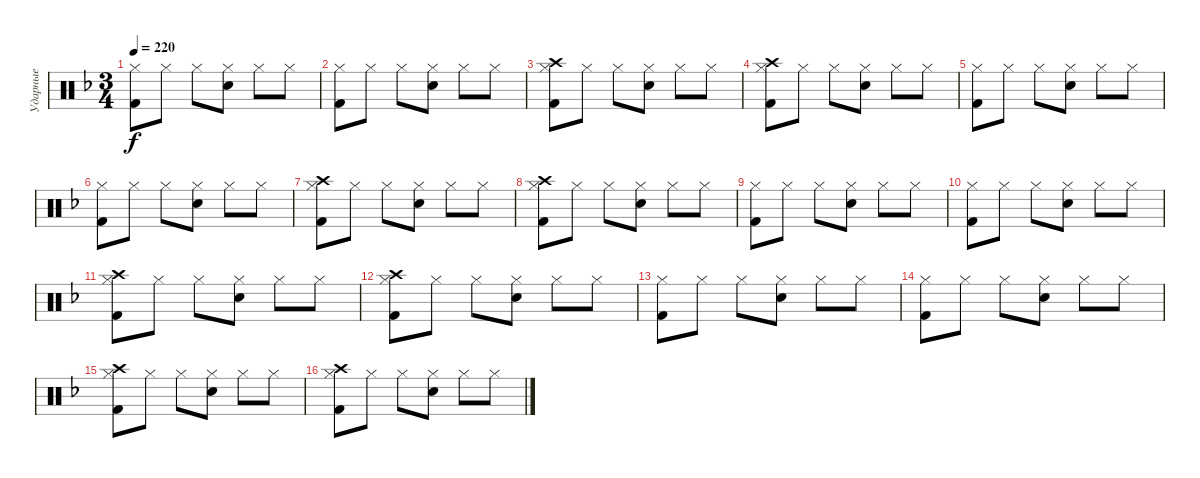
\track ("Ударные" "Ударные") {instrument percussion}
\staff {score}
\articulation defaults
\ts (3 4)
\tempo 220
\clef neutral
\ks f
("Hi-Hat (closed)" "Kick (hit) 2").8{dy f} "Hi-Hat (closed)".8 "Hi-Hat (closed)".8 ("Hi-Hat (closed)" "Electric Snare (hit)").8 "Hi-Hat (closed)".8 "Hi-Hat (closed)".8 |
("Hi-Hat (closed)" "Kick (hit) 2").8 "Hi-Hat (closed)".8 "Hi-Hat (closed)".8 ("Hi-Hat (closed)" "Electric Snare (hit)").8 "Hi-Hat (closed)".8 "Hi-Hat (closed)".8 |
("Crash high (hit)" "Hi-Hat (closed)" "Kick (hit) 2").8 "Hi-Hat (closed)".8 "Hi-Hat (closed)".8 ("Hi-Hat (closed)" "Electric Snare (hit)").8 "Hi-Hat (closed)".8 "Hi-Hat (closed)".8 |
("Crash high (hit)" "Hi-Hat (closed)" "Kick (hit) 2").8 "Hi-Hat (closed)".8 "Hi-Hat (closed)".8 ("Hi-Hat (closed)" "Electric Snare (hit)").8 "Hi-Hat (closed)".8 "Hi-Hat (closed)".8 |
("Hi-Hat (closed)" "Kick (hit) 2").8 "Hi-Hat (closed)".8 "Hi-Hat (closed)".8 ("Hi-Hat (closed)" "Electric Snare (hit)").8 "Hi-Hat (closed)".8 "Hi-Hat (closed)".8 |
("Hi-Hat (closed)" "Kick (hit) 2").8 "Hi-Hat (closed)".8 "Hi-Hat (closed)".8 ("Hi-Hat (closed)" "Electric Snare (hit)").8 "Hi-Hat (closed)".8 "Hi-Hat (closed)".8 |
("Crash high (hit)" "Hi-Hat (closed)" "Kick (hit) 2").8 "Hi-Hat (closed)".8 "Hi-Hat (closed)".8 ("Hi-Hat (closed)" "Electric Snare (hit)").8 "Hi-Hat (closed)".8 "Hi-Hat (closed)".8 |
("Crash high (hit)" "Hi-Hat (closed)" "Kick (hit) 2").8 "Hi-Hat (closed)".8 "Hi-Hat (closed)".8 ("Hi-Hat (closed)" "Electric Snare (hit)").8 "Hi-Hat (closed)".8 "Hi-Hat (closed)".8 |
("Hi-Hat (closed)" "Kick (hit) 2").8 "Hi-Hat (closed)".8 "Hi-Hat (closed)".8 ("Hi-Hat (closed)" "Electric Snare (hit)").8 "Hi-Hat (closed)".8 "Hi-Hat (closed)".8 |
("Hi-Hat (closed)" "Kick (hit) 2").8 "Hi-Hat (closed)".8 "Hi-Hat (closed)".8 ("Hi-Hat (closed)" "Electric Snare (hit)").8 "Hi-Hat (closed)".8 "Hi-Hat (closed)".8 |
("Crash high (hit)" "Hi-Hat (closed)" "Kick (hit) 2").8 "Hi-Hat (closed)".8 "Hi-Hat (closed)".8 ("Hi-Hat (closed)" "Electric Snare (hit)").8 "Hi-Hat (closed)".8 "Hi-Hat (closed)".8 |
("Crash high (hit)" "Hi-Hat (closed)" "Kick (hit) 2").8 "Hi-Hat (closed)".8 "Hi-Hat (closed)".8 ("Hi-Hat (closed)" "Electric Snare (hit)").8 "Hi-Hat (closed)".8 "Hi-Hat (closed)".8 |
("Hi-Hat (closed)" "Kick (hit) 2").8 "Hi-Hat (closed)".8 "Hi-Hat (closed)".8 ("Hi-Hat (closed)" "Electric Snare (hit)").8 "Hi-Hat (closed)".8 "Hi-Hat (closed)".8 |
("Hi-Hat (closed)" "Kick (hit) 2").8 "Hi-Hat (closed)".8 "Hi-Hat (closed)".8 ("Hi-Hat (closed)" "Electric Snare (hit)").8 "Hi-Hat (closed)".8 "Hi-Hat (closed)".8 |
("Crash high (hit)" "Hi-Hat (closed)" "Kick (hit) 2").8 "Hi-Hat (closed)".8 "Hi-Hat (closed)".8 ("Hi-Hat (closed)" "Electric Snare (hit)").8 "Hi-Hat (closed)".8 "Hi-Hat (closed)".8 |
("Crash high (hit)" "Hi-Hat (closed)" "Kick (hit) 2").8 "Hi-Hat (closed)".8 "Hi-Hat (closed)".8 ("Hi-Hat (closed)" "Electric Snare (hit)").8 "Hi-Hat (closed)".8 "Hi-Hat (closed)".8
